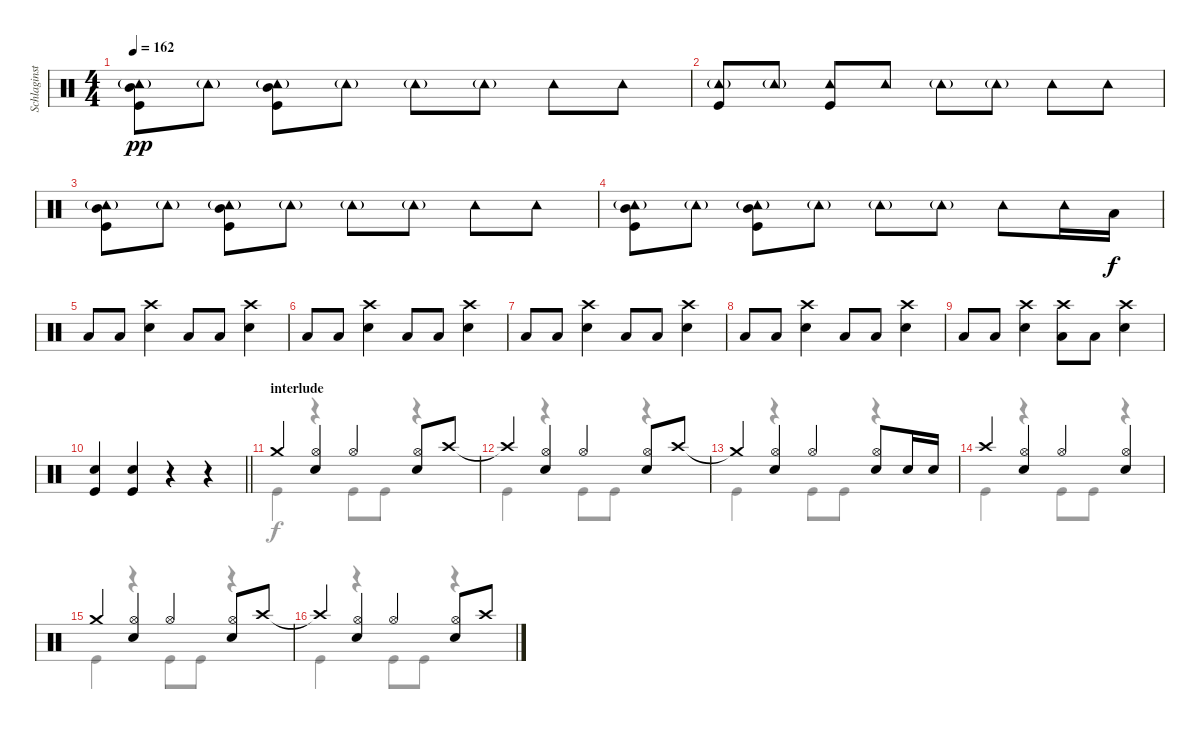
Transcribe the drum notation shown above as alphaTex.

\track ("Schlaginstrumente - Auswahl" "Schlaginst") {instrument percussion}
\staff {score}
\articulation defaults
\voice
\ts (4 4)
\tempo 162
\clef neutral
\ks c
("Tambourine (hit)"{g} "Kick (hit)" "Mid Tom (hit)").8{dy pp} "Tambourine (hit)"{g}.8 ("Tambourine (hit)"{g} "Kick (hit)" "Mid Tom (hit)").8 "Tambourine (hit)"{g}.8 "Tambourine (hit)"{g}.8 "Tambourine (hit)"{g}.8 "Tambourine (hit)".8 "Tambourine (hit)".8 |
("Tambourine (hit)"{g} "Kick (hit)").8 "Tambourine (hit)"{g}.8 ("Tambourine (hit)" "Kick (hit)").8 "Tambourine (hit)".8 "Tambourine (hit)"{g}.8 "Tambourine (hit)"{g}.8 "Tambourine (hit)".8 "Tambourine (hit)".8 |
("Tambourine (hit)"{g} "Kick (hit)" "Mid Tom (hit)").8 "Tambourine (hit)"{g}.8 ("Tambourine (hit)"{g} "Kick (hit)" "Mid Tom (hit)").8 "Tambourine (hit)"{g}.8 "Tambourine (hit)"{g}.8 "Tambourine (hit)"{g}.8 "Tambourine (hit)".8 "Tambourine (hit)".8 |
("Tambourine (hit)"{g} "Kick (hit)" "Mid Tom (hit)").8 "Tambourine (hit)"{g}.8 ("Tambourine (hit)"{g} "Kick (hit)" "Mid Tom (hit)").8 "Tambourine (hit)"{g}.8 "Tambourine (hit)"{g}.8 "Tambourine (hit)"{g}.8 "Tambourine (hit)".8 "Tambourine (hit)".16 "Low Tom (hit)".16{dy f} |
"Low Floor Tom (hit)".8 "Low Floor Tom (hit)".8 ("Snare (hit) 2" "Crash high (hit)").4 "Low Floor Tom (hit)".8 "Low Floor Tom (hit)".8 ("Crash high (hit)" "Snare (hit) 2").4 |
"Low Floor Tom (hit)".8 "Low Floor Tom (hit)".8 ("Snare (hit) 2" "Crash high (hit)").4 "Low Floor Tom (hit)".8 "Low Floor Tom (hit)".8 ("Crash high (hit)" "Snare (hit) 2").4 |
"Low Floor Tom (hit)".8 "Low Floor Tom (hit)".8 ("Snare (hit) 2" "Crash high (hit)").4 "Low Floor Tom (hit)".8 "Low Floor Tom (hit)".8 ("Crash high (hit)" "Snare (hit) 2").4 |
"Low Floor Tom (hit)".8 "Low Floor Tom (hit)".8 ("Snare (hit) 2" "Crash high (hit)").4 "Low Floor Tom (hit)".8 "Low Floor Tom (hit)".8 ("Crash high (hit)" "Snare (hit) 2").4 |
"Low Floor Tom (hit)".8 "Low Floor Tom (hit)".8 ("Snare (hit) 2" "Crash high (hit)").4 ("Low Floor Tom (hit)" "Crash high (hit)").8 "Low Floor Tom (hit)".8 ("Crash high (hit)" "Snare (hit) 2").4 |
\barLineRight lightlight
("Kick (hit)" "Snare (hit) 2").4 ("Kick (hit)" "Snare (hit) 2").4 r.4 r.4 |
\section ("" "interlude")
"Crash medium (hit)".4 ("Hi-Hat (open)" "Snare (hit) 2").4 "Hi-Hat (open)".4 ("Hi-Hat (open)" "Snare (hit) 2").8 "Crash high (hit)".8 |
"Crash high (hit)"{t}.4 ("Hi-Hat (open)" "Snare (hit) 2").4 "Hi-Hat (open)".4 ("Hi-Hat (open)" "Snare (hit) 2").8 "Crash high (hit)".8 |
"Crash medium (hit)"{t}.4 ("Hi-Hat (open)" "Snare (hit) 2").4 "Hi-Hat (open)".4 ("Hi-Hat (open)" "Snare (hit) 2").8 "Snare (hit) 2".16 "Snare (hit) 2".16 |
"Crash high (hit)".4 ("Hi-Hat (open)" "Snare (hit) 2").4 "Hi-Hat (open)".4 ("Hi-Hat (open)" "Snare (hit) 2").4 |
"Crash medium (hit)".4 ("Hi-Hat (open)" "Snare (hit) 2").4 "Hi-Hat (open)".4 ("Hi-Hat (open)" "Snare (hit) 2").8 "Crash high (hit)".8 |
"Crash high (hit)"{t}.4 ("Hi-Hat (open)" "Snare (hit) 2").4 "Hi-Hat (open)".4 ("Hi-Hat (open)" "Snare (hit) 2").8 "Crash high (hit)".8
\voice
\clef neutral
\ottava regular
\simile none
\ks c
|
|
|
|
|
|
|
|
|
\barLineRight lightlight
|
"Kick (hit)".4 r.4 "Kick (hit)".8 "Kick (hit)".8 r.4 |
"Kick (hit)".4 r.4 "Kick (hit)".8 "Kick (hit)".8 r.4 |
"Kick (hit)".4 r.4 "Kick (hit)".8 "Kick (hit)".8 r.4 |
"Kick (hit)".4 r.4 "Kick (hit)".8 "Kick (hit)".8 r.4 |
"Kick (hit)".4 r.4 "Kick (hit)".8 "Kick (hit)".8 r.4 |
"Kick (hit)".4 r.4 "Kick (hit)".8 "Kick (hit)".8 r.4
